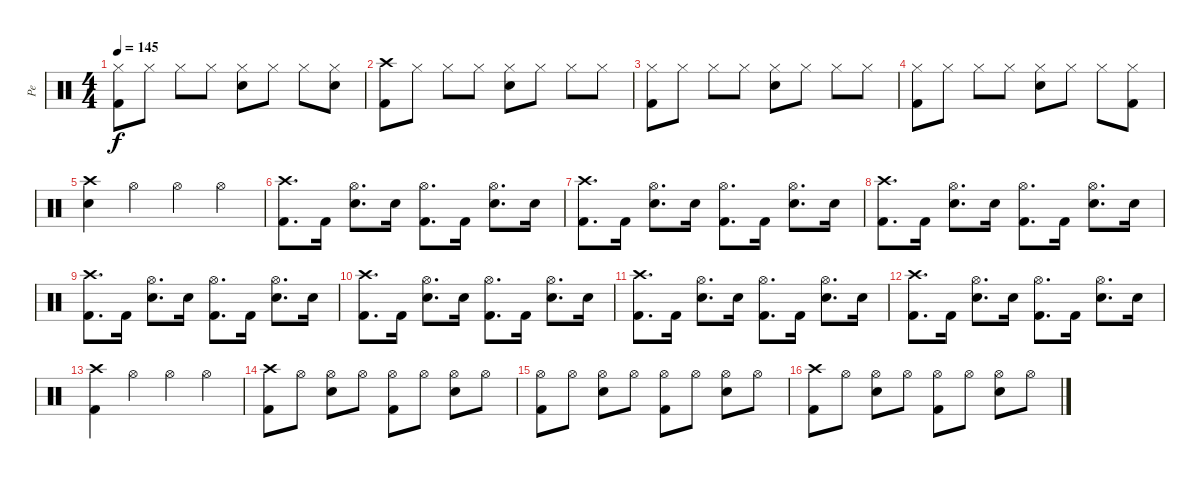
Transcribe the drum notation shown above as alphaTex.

\track ("Pe" "Pe") {instrument percussion}
\staff {score}
\articulation defaults
\ts (4 4)
\tempo 145
\clef neutral
\ks c
("Kick (hit) 2" "Hi-Hat (closed)").8{dy f} "Hi-Hat (closed)".8 "Hi-Hat (closed)".8 "Hi-Hat (closed)".8 ("Snare (hit) 2" "Hi-Hat (closed)").8 "Hi-Hat (closed)".8 "Hi-Hat (closed)".8 ("Snare (hit) 2" "Hi-Hat (closed)").8 |
("Kick (hit) 2" "Crash high (hit)").8 "Hi-Hat (closed)".8 "Hi-Hat (closed)".8 "Hi-Hat (closed)".8 ("Snare (hit) 2" "Hi-Hat (closed)").8 "Hi-Hat (closed)".8 "Hi-Hat (closed)".8 "Hi-Hat (closed)".8 |
("Kick (hit) 2" "Hi-Hat (closed)").8 "Hi-Hat (closed)".8 "Hi-Hat (closed)".8 "Hi-Hat (closed)".8 ("Snare (hit) 2" "Hi-Hat (closed)").8 "Hi-Hat (closed)".8 "Hi-Hat (closed)".8 "Hi-Hat (closed)".8 |
("Kick (hit) 2" "Hi-Hat (closed)").8 "Hi-Hat (closed)".8 "Hi-Hat (closed)".8 "Hi-Hat (closed)".8 ("Snare (hit) 2" "Hi-Hat (closed)").8 "Hi-Hat (closed)".8 "Hi-Hat (closed)".8 ("Kick (hit) 2" "Hi-Hat (closed)").8 |
("Snare (hit) 2" "Crash high (hit)").4 "Hi-Hat (open)".4 "Hi-Hat (open)".4 "Hi-Hat (open)".4 |
("Kick (hit) 2" "Crash high (hit)").8{d} "Kick (hit) 2".16 ("Snare (hit) 2" "Hi-Hat (open)").8{d} "Snare (hit) 2".16 ("Kick (hit) 2" "Hi-Hat (open)").8{d} "Kick (hit) 2".16 ("Snare (hit) 2" "Hi-Hat (open)").8{d} "Snare (hit) 2".16 |
("Kick (hit) 2" "Crash high (hit)").8{d} "Kick (hit) 2".16 ("Snare (hit) 2" "Hi-Hat (open)").8{d} "Snare (hit) 2".16 ("Kick (hit) 2" "Hi-Hat (open)").8{d} "Kick (hit) 2".16 ("Snare (hit) 2" "Hi-Hat (open)").8{d} "Snare (hit) 2".16 |
("Kick (hit) 2" "Crash high (hit)").8{d} "Kick (hit) 2".16 ("Snare (hit) 2" "Hi-Hat (open)").8{d} "Snare (hit) 2".16 ("Kick (hit) 2" "Hi-Hat (open)").8{d} "Kick (hit) 2".16 ("Snare (hit) 2" "Hi-Hat (open)").8{d} "Snare (hit) 2".16 |
("Kick (hit) 2" "Crash high (hit)").8{d} "Kick (hit) 2".16 ("Snare (hit) 2" "Hi-Hat (open)").8{d} "Snare (hit) 2".16 ("Kick (hit) 2" "Hi-Hat (open)").8{d} "Kick (hit) 2".16 ("Snare (hit) 2" "Hi-Hat (open)").8{d} "Snare (hit) 2".16 |
("Kick (hit) 2" "Crash high (hit)").8{d} "Kick (hit) 2".16 ("Snare (hit) 2" "Hi-Hat (open)").8{d} "Snare (hit) 2".16 ("Kick (hit) 2" "Hi-Hat (open)").8{d} "Kick (hit) 2".16 ("Snare (hit) 2" "Hi-Hat (open)").8{d} "Snare (hit) 2".16 |
("Kick (hit) 2" "Crash high (hit)").8{d} "Kick (hit) 2".16 ("Snare (hit) 2" "Hi-Hat (open)").8{d} "Snare (hit) 2".16 ("Kick (hit) 2" "Hi-Hat (open)").8{d} "Kick (hit) 2".16 ("Snare (hit) 2" "Hi-Hat (open)").8{d} "Snare (hit) 2".16 |
("Kick (hit) 2" "Crash high (hit)").8{d} "Kick (hit) 2".16 ("Snare (hit) 2" "Hi-Hat (open)").8{d} "Snare (hit) 2".16 ("Kick (hit) 2" "Hi-Hat (open)").8{d} "Kick (hit) 2".16 ("Snare (hit) 2" "Hi-Hat (open)").8{d} "Snare (hit) 2".16 |
("Kick (hit) 2" "Crash high (hit)").4 "Hi-Hat (open)".4 "Hi-Hat (open)".4 "Hi-Hat (open)".4 |
("Kick (hit) 2" "Crash high (hit)").8 "Hi-Hat (open)".8 ("Snare (hit) 2" "Hi-Hat (open)").8 "Hi-Hat (open)".8 ("Kick (hit) 2" "Hi-Hat (open)").8 "Hi-Hat (open)".8 ("Snare (hit) 2" "Hi-Hat (open)").8 "Hi-Hat (open)".8 |
("Kick (hit) 2" "Hi-Hat (open)").8 "Hi-Hat (open)".8 ("Snare (hit) 2" "Hi-Hat (open)").8 "Hi-Hat (open)".8 ("Kick (hit) 2" "Hi-Hat (open)").8 "Hi-Hat (open)".8 ("Snare (hit) 2" "Hi-Hat (open)").8 "Hi-Hat (open)".8 |
("Kick (hit) 2" "Crash high (hit)").8 "Hi-Hat (open)".8 ("Snare (hit) 2" "Hi-Hat (open)").8 "Hi-Hat (open)".8 ("Kick (hit) 2" "Hi-Hat (open)").8 "Hi-Hat (open)".8 ("Snare (hit) 2" "Hi-Hat (open)").8 "Hi-Hat (open)".8
